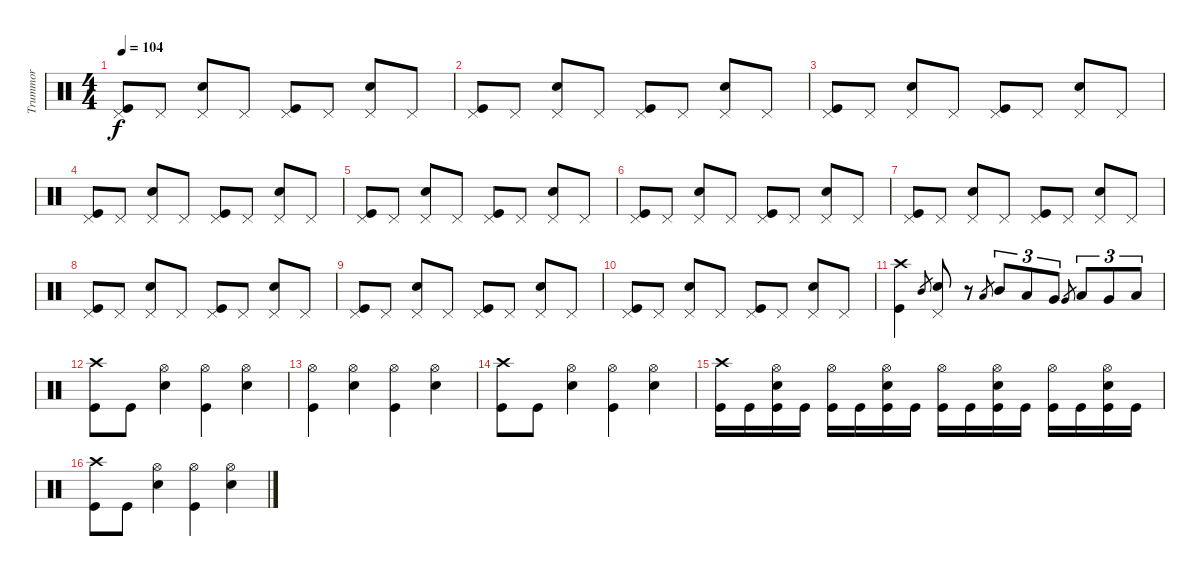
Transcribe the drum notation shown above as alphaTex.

\track ("Trummor" "Trummor") {instrument percussion}
\staff {score}
\articulation defaults
\ts (4 4)
\tempo 104
\clef neutral
\ks c
("Pedal Hi-Hat (hit)" "Kick (hit)").8{dy f} "Pedal Hi-Hat (hit)".8 ("Pedal Hi-Hat (hit)" "Snare (hit) 2").8 "Pedal Hi-Hat (hit)".8 ("Pedal Hi-Hat (hit)" "Kick (hit)").8 "Pedal Hi-Hat (hit)".8 ("Pedal Hi-Hat (hit)" "Snare (hit) 2").8 "Pedal Hi-Hat (hit)".8 |
("Pedal Hi-Hat (hit)" "Kick (hit)").8 "Pedal Hi-Hat (hit)".8 ("Pedal Hi-Hat (hit)" "Snare (hit) 2").8 "Pedal Hi-Hat (hit)".8 ("Pedal Hi-Hat (hit)" "Kick (hit)").8 "Pedal Hi-Hat (hit)".8 ("Pedal Hi-Hat (hit)" "Snare (hit) 2").8 "Pedal Hi-Hat (hit)".8 |
("Pedal Hi-Hat (hit)" "Kick (hit)").8 "Pedal Hi-Hat (hit)".8 ("Pedal Hi-Hat (hit)" "Snare (hit) 2").8 "Pedal Hi-Hat (hit)".8 ("Pedal Hi-Hat (hit)" "Kick (hit)").8 "Pedal Hi-Hat (hit)".8 ("Pedal Hi-Hat (hit)" "Snare (hit) 2").8 "Pedal Hi-Hat (hit)".8 |
("Pedal Hi-Hat (hit)" "Kick (hit)").8 "Pedal Hi-Hat (hit)".8 ("Pedal Hi-Hat (hit)" "Snare (hit) 2").8 "Pedal Hi-Hat (hit)".8 ("Pedal Hi-Hat (hit)" "Kick (hit)").8 "Pedal Hi-Hat (hit)".8 ("Pedal Hi-Hat (hit)" "Snare (hit) 2").8 "Pedal Hi-Hat (hit)".8 |
("Pedal Hi-Hat (hit)" "Kick (hit)").8 "Pedal Hi-Hat (hit)".8 ("Pedal Hi-Hat (hit)" "Snare (hit) 2").8 "Pedal Hi-Hat (hit)".8 ("Pedal Hi-Hat (hit)" "Kick (hit)").8 "Pedal Hi-Hat (hit)".8 ("Pedal Hi-Hat (hit)" "Snare (hit) 2").8 "Pedal Hi-Hat (hit)".8 |
("Pedal Hi-Hat (hit)" "Kick (hit)").8 "Pedal Hi-Hat (hit)".8 ("Pedal Hi-Hat (hit)" "Snare (hit) 2").8 "Pedal Hi-Hat (hit)".8 ("Pedal Hi-Hat (hit)" "Kick (hit)").8 "Pedal Hi-Hat (hit)".8 ("Pedal Hi-Hat (hit)" "Snare (hit) 2").8 "Pedal Hi-Hat (hit)".8 |
("Pedal Hi-Hat (hit)" "Kick (hit)").8 "Pedal Hi-Hat (hit)".8 ("Pedal Hi-Hat (hit)" "Snare (hit) 2").8 "Pedal Hi-Hat (hit)".8 ("Pedal Hi-Hat (hit)" "Kick (hit)").8 "Pedal Hi-Hat (hit)".8 ("Pedal Hi-Hat (hit)" "Snare (hit) 2").8 "Pedal Hi-Hat (hit)".8 |
("Pedal Hi-Hat (hit)" "Kick (hit)").8 "Pedal Hi-Hat (hit)".8 ("Pedal Hi-Hat (hit)" "Snare (hit) 2").8 "Pedal Hi-Hat (hit)".8 ("Pedal Hi-Hat (hit)" "Kick (hit)").8 "Pedal Hi-Hat (hit)".8 ("Pedal Hi-Hat (hit)" "Snare (hit) 2").8 "Pedal Hi-Hat (hit)".8 |
("Pedal Hi-Hat (hit)" "Kick (hit)").8 "Pedal Hi-Hat (hit)".8 ("Pedal Hi-Hat (hit)" "Snare (hit) 2").8 "Pedal Hi-Hat (hit)".8 ("Pedal Hi-Hat (hit)" "Kick (hit)").8 "Pedal Hi-Hat (hit)".8 ("Pedal Hi-Hat (hit)" "Snare (hit) 2").8 "Pedal Hi-Hat (hit)".8 |
("Pedal Hi-Hat (hit)" "Kick (hit)").8 "Pedal Hi-Hat (hit)".8 ("Pedal Hi-Hat (hit)" "Snare (hit) 2").8 "Pedal Hi-Hat (hit)".8 ("Pedal Hi-Hat (hit)" "Kick (hit)").8 "Pedal Hi-Hat (hit)".8 ("Pedal Hi-Hat (hit)" "Snare (hit) 2").8 "Pedal Hi-Hat (hit)".8 |
("Crash high (hit)" "Kick (hit)").4 "Mid Tom (hit)".8{gr} ("Pedal Hi-Hat (hit)" "Snare (hit) 2").8 r.8 "Low Tom (hit)"{sl}.8{gr} "Mid Tom (hit)".8{tu (3 2)} "Low Tom (hit)".8{tu (3 2)} "Very Low Tom (hit)".8{tu (3 2)} "Very Low Tom (hit)"{sl}.8{gr} "Low Tom (hit)".8{tu (3 2)} "Very Low Tom (hit)".8{tu (3 2)} "Low Floor Tom (hit)".8{tu (3 2)} |
("Crash high (hit)" "Kick (hit)").8 "Kick (hit)".8 ("Hi-Hat (open)" "Snare (hit) 2").4 ("Hi-Hat (open)" "Kick (hit)").4 ("Hi-Hat (open)" "Snare (hit) 2").4 |
("Hi-Hat (open)" "Kick (hit)").4 ("Hi-Hat (open)" "Snare (hit) 2").4 ("Hi-Hat (open)" "Kick (hit)").4 ("Hi-Hat (open)" "Snare (hit) 2").4 |
("Crash high (hit)" "Kick (hit)").8 "Kick (hit)".8 ("Hi-Hat (open)" "Snare (hit) 2").4 ("Hi-Hat (open)" "Kick (hit)").4 ("Hi-Hat (open)" "Snare (hit) 2").4 |
("Crash high (hit)" "Kick (hit)").16 "Kick (hit)".16 ("Hi-Hat (open)" "Electric Snare (hit)" "Kick (hit)").16 "Kick (hit)".16 ("Hi-Hat (open)" "Kick (hit)").16 "Kick (hit)".16 ("Hi-Hat (open)" "Electric Snare (hit)" "Kick (hit)").16 "Kick (hit)".16 ("Hi-Hat (open)" "Kick (hit)").16 "Kick (hit)".16 ("Hi-Hat (open)" "Electric Snare (hit)" "Kick (hit)").16 "Kick (hit)".16 ("Hi-Hat (open)" "Kick (hit)").16 "Kick (hit)".16 ("Hi-Hat (open)" "Electric Snare (hit)" "Kick (hit)").16 "Kick (hit)".16 |
("Crash high (hit)" "Kick (hit)").8 "Kick (hit)".8 ("Hi-Hat (open)" "Snare (hit) 2").4 ("Hi-Hat (open)" "Kick (hit)").4 ("Hi-Hat (open)" "Snare (hit) 2").4
